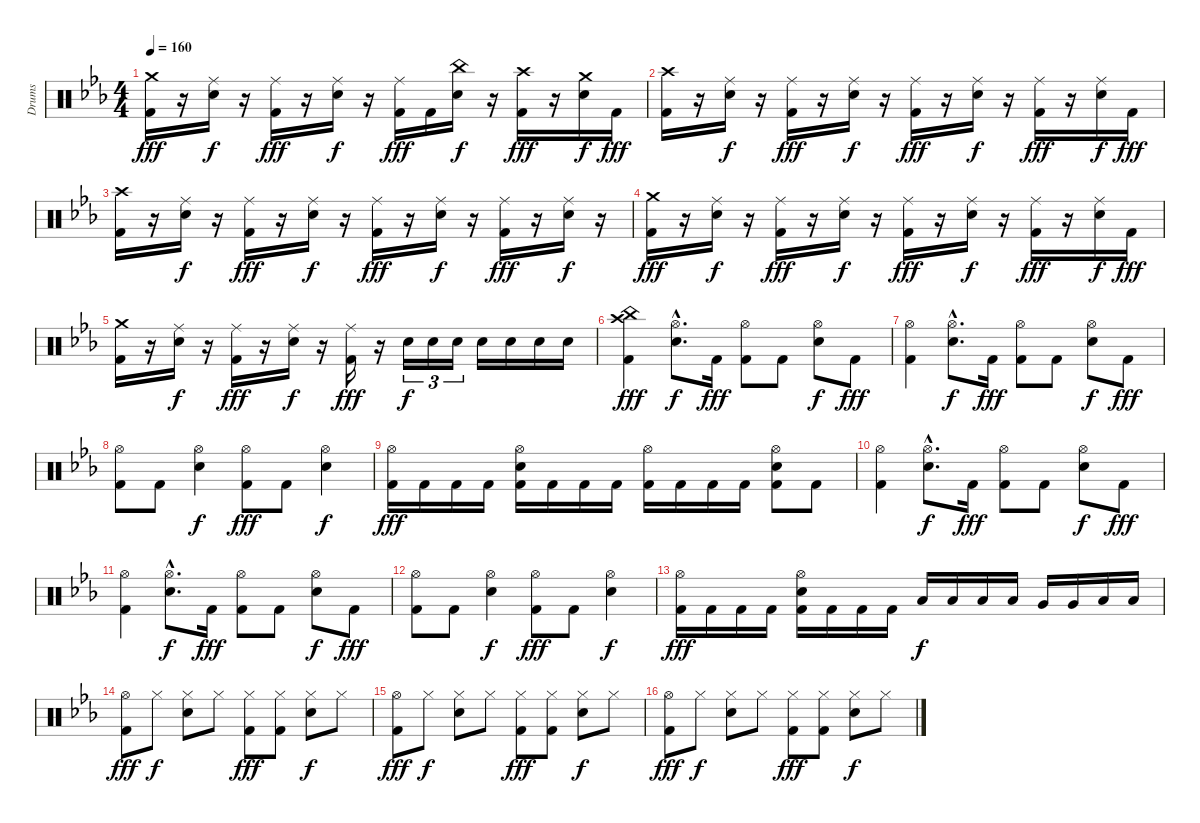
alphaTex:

\track ("Drums" "Drums") {instrument percussion}
\staff {score}
\articulation defaults
\ts (4 4)
\tempo 160
\clef neutral
\ks eb
("Crash medium (hit)" "Kick (hit) 2").16{dy fff} r.16 ("Ride (middle)" "Electric Snare (hit)").16{dy f} r.16 ("Ride (middle)" "Kick (hit) 2").16{dy fff} r.16 ("Ride (middle)" "Electric Snare (hit)").16{dy f} r.16 ("Ride (middle)" "Kick (hit) 2").16{dy fff} "Kick (hit) 2".16 ("China (hit)" "Electric Snare (hit)").16{dy f} r.16 ("Crash high (hit)" "Kick (hit) 2").16{dy fff} r.16 ("Crash medium (hit)" "Electric Snare (hit)").16{dy f} "Kick (hit) 2".16{dy fff} |
("Crash high (hit)" "Kick (hit) 2").16 r.16 ("Ride (middle)" "Electric Snare (hit)").16{dy f} r.16 ("Ride (middle)" "Kick (hit) 2").16{dy fff} r.16 ("Ride (middle)" "Electric Snare (hit)").16{dy f} r.16 ("Ride (middle)" "Kick (hit) 2").16{dy fff} r.16 ("Ride (middle)" "Electric Snare (hit)").16{dy f} r.16 ("Ride (middle)" "Kick (hit) 2").16{dy fff} r.16 ("Ride (middle)" "Electric Snare (hit)").16{dy f} "Kick (hit) 2".16{dy fff} |
("Crash high (hit)" "Kick (hit) 2").16 r.16 ("Ride (middle)" "Electric Snare (hit)").16{dy f} r.16 ("Ride (middle)" "Kick (hit) 2").16{dy fff} r.16 ("Ride (middle)" "Electric Snare (hit)").16{dy f} r.16 ("Ride (middle)" "Kick (hit) 2").16{dy fff} r.16 ("Ride (middle)" "Electric Snare (hit)").16{dy f} r.16 ("Ride (middle)" "Kick (hit) 2").16{dy fff} r.16 ("Ride (middle)" "Electric Snare (hit)").16{dy f} r.16 |
("Crash medium (hit)" "Kick (hit) 2").16{dy fff} r.16 ("Ride (middle)" "Electric Snare (hit)").16{dy f} r.16 ("Ride (middle)" "Kick (hit) 2").16{dy fff} r.16 ("Ride (middle)" "Electric Snare (hit)").16{dy f} r.16 ("Ride (middle)" "Kick (hit) 2").16{dy fff} r.16 ("Ride (middle)" "Electric Snare (hit)").16{dy f} r.16 ("Ride (middle)" "Kick (hit) 2").16{dy fff} r.16 ("Ride (middle)" "Electric Snare (hit)").16{dy f} "Kick (hit) 2".16{dy fff} |
("Crash medium (hit)" "Kick (hit) 2").16 r.16 ("Ride (middle)" "Electric Snare (hit)").16{dy f} r.16 ("Ride (middle)" "Kick (hit) 2").16{dy fff} r.16 ("Ride (middle)" "Electric Snare (hit)").16{dy f} r.16 ("Ride (middle)" "Kick (hit) 2").16{dy fff} r.16 "Electric Snare (hit)".16{tu (3 2) dy f} "Electric Snare (hit)".16{tu (3 2)} "Electric Snare (hit)".16{tu (3 2)} "Electric Snare (hit)".16 "Electric Snare (hit)".16 "Electric Snare (hit)".16 "Electric Snare (hit)".16 |
("China (hit)" "Crash high (hit)" "Kick (hit) 2").4{dy fff} ("Hi-Hat (open)"{hac} "Electric Snare (hit)"{hac}).8{d dy f} "Kick (hit) 2".16{dy fff} ("Hi-Hat (open)" "Kick (hit) 2").8 "Kick (hit) 2".8 ("Hi-Hat (open)" "Electric Snare (hit)").8{dy f} "Kick (hit) 2".8{dy fff} |
("Hi-Hat (open)" "Kick (hit) 2").4 ("Hi-Hat (open)"{hac} "Electric Snare (hit)"{hac}).8{d dy f} "Kick (hit) 2".16{dy fff} ("Hi-Hat (open)" "Kick (hit) 2").8 "Kick (hit) 2".8 ("Hi-Hat (open)" "Electric Snare (hit)").8{dy f} "Kick (hit) 2".8{dy fff} |
("Hi-Hat (open)" "Kick (hit) 2").8 "Kick (hit) 2".8 ("Hi-Hat (open)" "Electric Snare (hit)").4{dy f} ("Hi-Hat (open)" "Kick (hit) 2").8{dy fff} "Kick (hit) 2".8 ("Hi-Hat (open)" "Electric Snare (hit)").4{dy f} |
("Hi-Hat (open)" "Kick (hit) 2").16{dy fff} "Kick (hit) 2".16 "Kick (hit) 2".16 "Kick (hit) 2".16 ("Hi-Hat (open)" "Electric Snare (hit)" "Kick (hit) 2").16 "Kick (hit) 2".16 "Kick (hit) 2".16 "Kick (hit) 2".16 ("Hi-Hat (open)" "Kick (hit) 2").16 "Kick (hit) 2".16 "Kick (hit) 2".16 "Kick (hit) 2".16 ("Hi-Hat (open)" "Electric Snare (hit)" "Kick (hit) 2").8 "Kick (hit) 2".8 |
("Hi-Hat (open)" "Kick (hit) 2").4 ("Hi-Hat (open)"{hac} "Electric Snare (hit)"{hac}).8{d dy f} "Kick (hit) 2".16{dy fff} ("Hi-Hat (open)" "Kick (hit) 2").8 "Kick (hit) 2".8 ("Hi-Hat (open)" "Electric Snare (hit)").8{dy f} "Kick (hit) 2".8{dy fff} |
("Hi-Hat (open)" "Kick (hit) 2").4 ("Hi-Hat (open)"{hac} "Electric Snare (hit)"{hac}).8{d dy f} "Kick (hit) 2".16{dy fff} ("Hi-Hat (open)" "Kick (hit) 2").8 "Kick (hit) 2".8 ("Hi-Hat (open)" "Electric Snare (hit)").8{dy f} "Kick (hit) 2".8{dy fff} |
("Hi-Hat (open)" "Kick (hit) 2").8 "Kick (hit) 2".8 ("Hi-Hat (open)" "Electric Snare (hit)").4{dy f} ("Hi-Hat (open)" "Kick (hit) 2").8{dy fff} "Kick (hit) 2".8 ("Hi-Hat (open)" "Electric Snare (hit)").4{dy f} |
("Hi-Hat (open)" "Kick (hit) 2").16{dy fff} "Kick (hit) 2".16 "Kick (hit) 2".16 "Kick (hit) 2".16 ("Hi-Hat (open)" "Electric Snare (hit)" "Kick (hit) 2").16 "Kick (hit) 2".16 "Kick (hit) 2".16 "Kick (hit) 2".16 "Low Tom (hit)".16{dy f} "Low Tom (hit)".16 "Low Tom (hit)".16 "Low Tom (hit)".16 "Very Low Tom (hit)".16 "Very Low Tom (hit)".16 "Low Floor Tom (hit)".16 "Low Floor Tom (hit)".16 |
("Hi-Hat (open)" "Kick (hit) 2").8{dy fff} "Hi-Hat (closed)".8{dy f} ("Hi-Hat (closed)" "Electric Snare (hit)").8 "Hi-Hat (closed)".8 ("Hi-Hat (closed)" "Kick (hit) 2").8{dy fff} ("Hi-Hat (closed)" "Kick (hit) 2").8 ("Hi-Hat (closed)" "Electric Snare (hit)").8{dy f} "Hi-Hat (closed)".8 |
("Hi-Hat (open)" "Kick (hit) 2").8{dy fff} "Hi-Hat (closed)".8{dy f} ("Hi-Hat (closed)" "Electric Snare (hit)").8 "Hi-Hat (closed)".8 ("Hi-Hat (closed)" "Kick (hit) 2").8{dy fff} ("Hi-Hat (closed)" "Kick (hit) 2").8 ("Hi-Hat (closed)" "Electric Snare (hit)").8{dy f} "Hi-Hat (closed)".8 |
("Hi-Hat (open)" "Kick (hit) 2").8{dy fff} "Hi-Hat (closed)".8{dy f} ("Hi-Hat (closed)" "Electric Snare (hit)").8 "Hi-Hat (closed)".8 ("Hi-Hat (closed)" "Kick (hit) 2").8{dy fff} ("Hi-Hat (closed)" "Kick (hit) 2").8 ("Hi-Hat (closed)" "Electric Snare (hit)").8{dy f} "Hi-Hat (closed)".8
